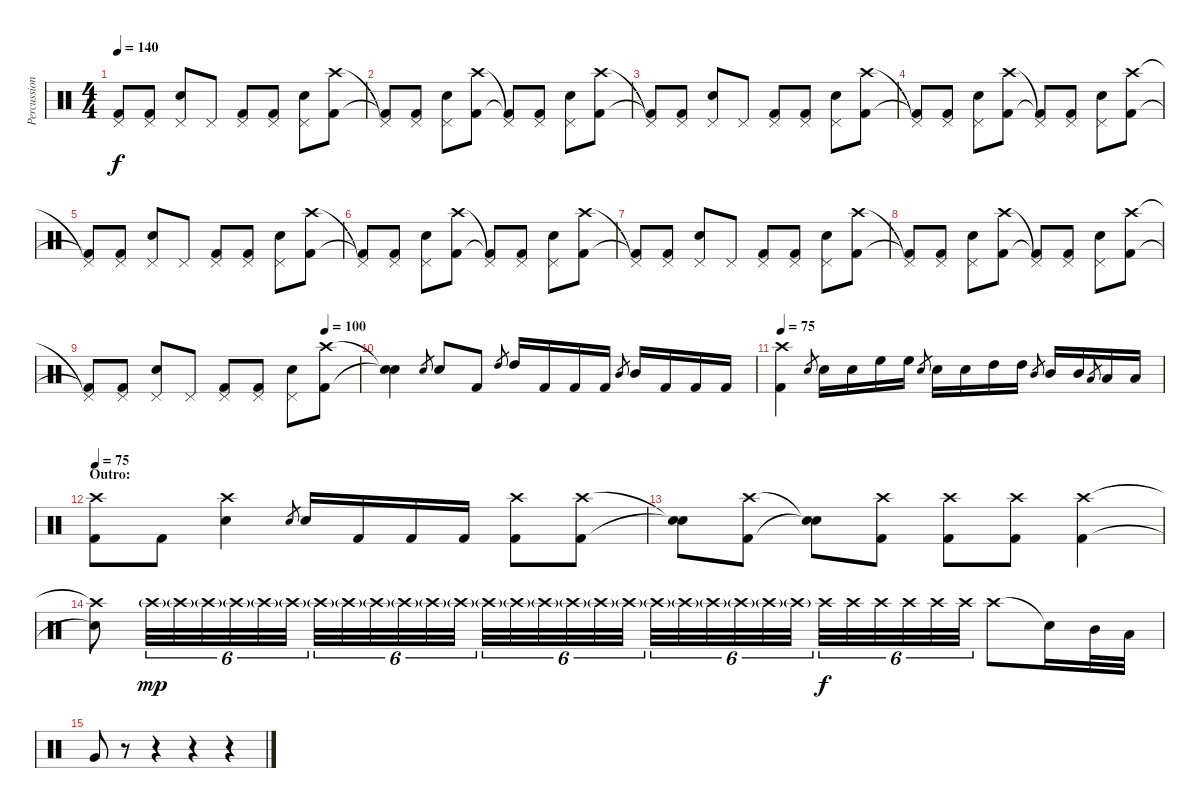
\track ("Percussion" "Percussion") {instrument percussion}
\staff {score}
\articulation defaults
\ts (4 4)
\tempo 140
\clef neutral
\ks c
("Pedal Hi-Hat (hit)"{t} "Kick (hit) 2"{t}).8{dy f} ("Pedal Hi-Hat (hit)" "Kick (hit) 2").8 ("Pedal Hi-Hat (hit)" "Snare (hit) 2").8 "Pedal Hi-Hat (hit)".8 ("Pedal Hi-Hat (hit)" "Kick (hit) 2").8 ("Pedal Hi-Hat (hit)" "Kick (hit) 2").8 ("Pedal Hi-Hat (hit)" "Snare (hit) 2").8 ("Crash high (hit)" "Kick (hit) 2").8 |
("Pedal Hi-Hat (hit)"{t} "Kick (hit) 2"{t}).8 ("Pedal Hi-Hat (hit)" "Kick (hit) 2").8 ("Pedal Hi-Hat (hit)" "Snare (hit) 2").8 ("Crash high (hit)" "Kick (hit) 2").8 ("Pedal Hi-Hat (hit)"{t} "Kick (hit) 2"{t}).8 ("Pedal Hi-Hat (hit)" "Kick (hit) 2").8 ("Pedal Hi-Hat (hit)" "Snare (hit) 2").8 ("Crash high (hit)" "Kick (hit) 2").8 |
("Pedal Hi-Hat (hit)"{t} "Kick (hit) 2"{t}).8 ("Pedal Hi-Hat (hit)" "Kick (hit) 2").8 ("Pedal Hi-Hat (hit)" "Snare (hit) 2").8 "Pedal Hi-Hat (hit)".8 ("Pedal Hi-Hat (hit)" "Kick (hit) 2").8 ("Pedal Hi-Hat (hit)" "Kick (hit) 2").8 ("Pedal Hi-Hat (hit)" "Snare (hit) 2").8 ("Crash high (hit)" "Kick (hit) 2").8 |
("Pedal Hi-Hat (hit)"{t} "Kick (hit) 2"{t}).8 ("Pedal Hi-Hat (hit)" "Kick (hit) 2").8 ("Pedal Hi-Hat (hit)" "Snare (hit) 2").8 ("Crash high (hit)" "Kick (hit) 2").8 ("Pedal Hi-Hat (hit)"{t} "Kick (hit) 2"{t}).8 ("Pedal Hi-Hat (hit)" "Kick (hit) 2").8 ("Pedal Hi-Hat (hit)" "Snare (hit) 2").8 ("Crash high (hit)" "Kick (hit) 2").8 |
("Pedal Hi-Hat (hit)"{t} "Kick (hit) 2"{t}).8 ("Pedal Hi-Hat (hit)" "Kick (hit) 2").8 ("Pedal Hi-Hat (hit)" "Snare (hit) 2").8 "Pedal Hi-Hat (hit)".8 ("Pedal Hi-Hat (hit)" "Kick (hit) 2").8 ("Pedal Hi-Hat (hit)" "Kick (hit) 2").8 ("Pedal Hi-Hat (hit)" "Snare (hit) 2").8 ("Crash high (hit)" "Kick (hit) 2").8 |
("Pedal Hi-Hat (hit)"{t} "Kick (hit) 2"{t}).8 ("Pedal Hi-Hat (hit)" "Kick (hit) 2").8 ("Pedal Hi-Hat (hit)" "Snare (hit) 2").8 ("Crash high (hit)" "Kick (hit) 2").8 ("Pedal Hi-Hat (hit)"{t} "Kick (hit) 2"{t}).8 ("Pedal Hi-Hat (hit)" "Kick (hit) 2").8 ("Pedal Hi-Hat (hit)" "Snare (hit) 2").8 ("Crash high (hit)" "Kick (hit) 2").8 |
("Pedal Hi-Hat (hit)"{t} "Kick (hit) 2"{t}).8 ("Pedal Hi-Hat (hit)" "Kick (hit) 2").8 ("Pedal Hi-Hat (hit)" "Snare (hit) 2").8 "Pedal Hi-Hat (hit)".8 ("Pedal Hi-Hat (hit)" "Kick (hit) 2").8 ("Pedal Hi-Hat (hit)" "Kick (hit) 2").8 ("Pedal Hi-Hat (hit)" "Snare (hit) 2").8 ("Crash high (hit)" "Kick (hit) 2").8 |
("Pedal Hi-Hat (hit)"{t} "Kick (hit) 2"{t}).8 ("Pedal Hi-Hat (hit)" "Kick (hit) 2").8 ("Pedal Hi-Hat (hit)" "Snare (hit) 2").8 ("Crash high (hit)" "Kick (hit) 2").8 ("Pedal Hi-Hat (hit)"{t} "Kick (hit) 2"{t}).8 ("Pedal Hi-Hat (hit)" "Kick (hit) 2").8 ("Pedal Hi-Hat (hit)" "Snare (hit) 2").8 ("Crash high (hit)" "Kick (hit) 2").8 |
\tempo (100 0.875)
("Pedal Hi-Hat (hit)"{t} "Kick (hit) 2"{t}).8 ("Pedal Hi-Hat (hit)" "Kick (hit) 2").8 ("Pedal Hi-Hat (hit)" "Snare (hit) 2").8 "Pedal Hi-Hat (hit)".8 ("Pedal Hi-Hat (hit)" "Kick (hit) 2").8 ("Pedal Hi-Hat (hit)" "Kick (hit) 2").8 ("Pedal Hi-Hat (hit)" "Snare (hit) 2").8 ("Crash high (hit)" "Kick (hit) 2").8 |
("Snare (hit)"{t} "Snare (hit)"{t}).4 "Snare (hit) 2".8{gr} "Snare (hit) 2".8 "Kick (hit) 2".8 "High Tom (hit)".8{gr} "High Tom (hit)".16 "Kick (hit) 2".16 "Kick (hit) 2".16 "Kick (hit) 2".16 "Mid Tom (hit)".8{gr} "Mid Tom (hit)".16 "Kick (hit) 2".16 "Kick (hit) 2".16 "Kick (hit) 2".16 |
\tempo 75
("Crash high (hit)" "Kick (hit) 2").4 "Snare (hit) 2".8{gr} "Snare (hit) 2".16 "Snare (hit) 2".16 "High Floor Tom (hit)".16 "High Floor Tom (hit)".16 "Snare (hit) 2".8{gr} "Snare (hit) 2".16 "Snare (hit) 2".16 "High Tom (hit)".16 "High Tom (hit)".16 "Mid Tom (hit)".8{gr} "Mid Tom (hit)".16 "Mid Tom (hit)".16 "Low Tom (hit)".8{gr} "Low Tom (hit)".16 "Low Tom (hit)".16 |
\section ("" "Outro:")
\tempo 75
("Crash high (hit)" "Kick (hit) 2").8 "Kick (hit) 2".8 ("Crash high (hit)" "Snare (hit) 2").4 "Snare (hit) 2".8{gr} "Snare (hit) 2".16 "Kick (hit) 2".16 "Kick (hit) 2".16 "Kick (hit) 2".16 ("Crash high (hit)" "Kick (hit) 2").8 ("Crash high (hit)" "Kick (hit) 2").8 |
("Snare (hit)"{t} "Snare (hit)"{t}).8 ("Crash high (hit)" "Kick (hit) 2").8 ("Snare (hit)"{t} "Snare (hit)"{t}).8 ("Crash high (hit)" "Kick (hit) 2").8 ("Crash high (hit)" "Kick (hit) 2").8 ("Crash high (hit)" "Kick (hit) 2").8 ("Crash high (hit)" "Kick (hit) 2").4 |
("Crash high (hit)"{t} "Snare (hit)"{t}).8 "Crash high (hit)"{g}.32{tu (6 4) dy mp} "Crash high (hit)"{g}.32{tu (6 4)} "Crash high (hit)"{g}.32{tu (6 4)} "Crash high (hit)"{g}.32{tu (6 4)} "Crash high (hit)"{g}.32{tu (6 4)} "Crash high (hit)"{g}.32{tu (6 4)} "Crash high (hit)"{g}.32{tu (6 4)} "Crash high (hit)"{g}.32{tu (6 4)} "Crash high (hit)"{g}.32{tu (6 4)} "Crash high (hit)"{g}.32{tu (6 4)} "Crash high (hit)"{g}.32{tu (6 4)} "Crash high (hit)"{g}.32{tu (6 4)} "Crash high (hit)"{g}.32{tu (6 4)} "Crash high (hit)"{g}.32{tu (6 4)} "Crash high (hit)"{g}.32{tu (6 4)} "Crash high (hit)"{g}.32{tu (6 4)} "Crash high (hit)"{g}.32{tu (6 4)} "Crash high (hit)"{g}.32{tu (6 4)} "Crash high (hit)"{g}.32{tu (6 4)} "Crash high (hit)"{g}.32{tu (6 4)} "Crash high (hit)"{g}.32{tu (6 4)} "Crash high (hit)"{g}.32{tu (6 4)} "Crash high (hit)"{g}.32{tu (6 4)} "Crash high (hit)"{g}.32{tu (6 4)} "Crash high (hit)".32{tu (6 4) dy f} "Crash high (hit)".32{tu (6 4)} "Crash high (hit)".32{tu (6 4)} "Crash high (hit)".32{tu (6 4)} "Crash high (hit)".32{tu (6 4)} "Crash high (hit)".32{tu (6 4)} "Crash high (hit)".8 "Snare (hit)"{t}.16 "Mid Tom (hit)".32 "Low Tom (hit)".32 |
"Very Low Tom (hit)".8 r.8 r.4 r.4 r.4
